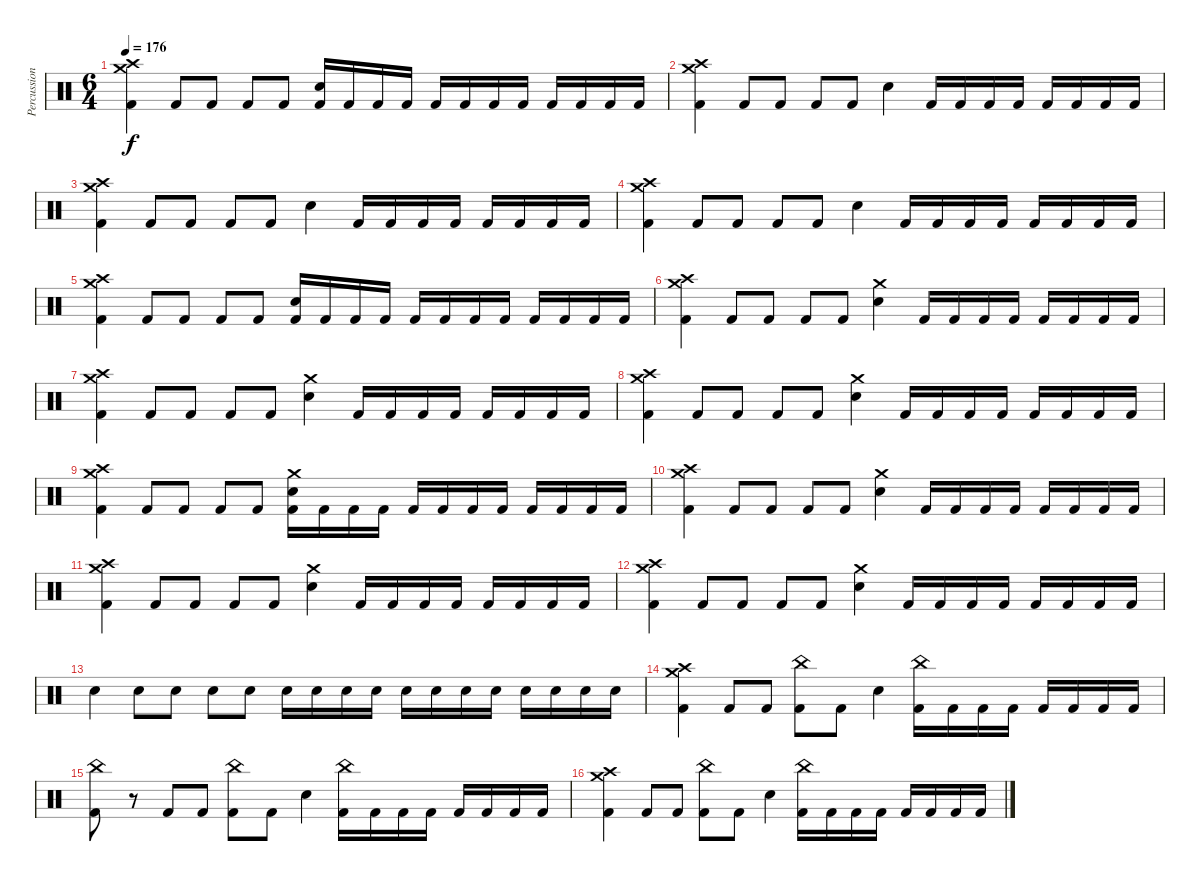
\track ("Percussion" "Percussion") {instrument percussion}
\staff {score}
\articulation defaults
\ts (6 4)
\tempo 176
\clef neutral
\ks c
("Crash high (hit)" "Crash medium (hit)" "Kick (hit) 2").4{dy f} "Kick (hit) 2".8 "Kick (hit) 2".8 "Kick (hit) 2".8 "Kick (hit) 2".8 ("Snare (hit) 2" "Kick (hit) 2").16 "Kick (hit) 2".16 "Kick (hit) 2".16 "Kick (hit) 2".16 "Kick (hit) 2".16 "Kick (hit) 2".16 "Kick (hit) 2".16 "Kick (hit) 2".16 "Kick (hit) 2".16 "Kick (hit) 2".16 "Kick (hit) 2".16 "Kick (hit) 2".16 |
("Crash high (hit)" "Crash medium (hit)" "Kick (hit) 2").4 "Kick (hit) 2".8 "Kick (hit) 2".8 "Kick (hit) 2".8 "Kick (hit) 2".8 "Snare (hit) 2".4 "Kick (hit) 2".16 "Kick (hit) 2".16 "Kick (hit) 2".16 "Kick (hit) 2".16 "Kick (hit) 2".16 "Kick (hit) 2".16 "Kick (hit) 2".16 "Kick (hit) 2".16 |
("Crash high (hit)" "Crash medium (hit)" "Kick (hit) 2").4 "Kick (hit) 2".8 "Kick (hit) 2".8 "Kick (hit) 2".8 "Kick (hit) 2".8 "Snare (hit) 2".4 "Kick (hit) 2".16 "Kick (hit) 2".16 "Kick (hit) 2".16 "Kick (hit) 2".16 "Kick (hit) 2".16 "Kick (hit) 2".16 "Kick (hit) 2".16 "Kick (hit) 2".16 |
("Crash high (hit)" "Crash medium (hit)" "Kick (hit) 2").4 "Kick (hit) 2".8 "Kick (hit) 2".8 "Kick (hit) 2".8 "Kick (hit) 2".8 "Snare (hit) 2".4 "Kick (hit) 2".16 "Kick (hit) 2".16 "Kick (hit) 2".16 "Kick (hit) 2".16 "Kick (hit) 2".16 "Kick (hit) 2".16 "Kick (hit) 2".16 "Kick (hit) 2".16 |
("Crash high (hit)" "Crash medium (hit)" "Kick (hit) 2").4 "Kick (hit) 2".8 "Kick (hit) 2".8 "Kick (hit) 2".8 "Kick (hit) 2".8 ("Snare (hit) 2" "Kick (hit) 2").16 "Kick (hit) 2".16 "Kick (hit) 2".16 "Kick (hit) 2".16 "Kick (hit) 2".16 "Kick (hit) 2".16 "Kick (hit) 2".16 "Kick (hit) 2".16 "Kick (hit) 2".16 "Kick (hit) 2".16 "Kick (hit) 2".16 "Kick (hit) 2".16 |
("Crash high (hit)" "Crash medium (hit)" "Kick (hit) 2").4 "Kick (hit) 2".8 "Kick (hit) 2".8 "Kick (hit) 2".8 "Kick (hit) 2".8 ("Crash medium (hit)" "Snare (hit) 2").4 "Kick (hit) 2".16 "Kick (hit) 2".16 "Kick (hit) 2".16 "Kick (hit) 2".16 "Kick (hit) 2".16 "Kick (hit) 2".16 "Kick (hit) 2".16 "Kick (hit) 2".16 |
("Crash high (hit)" "Crash medium (hit)" "Kick (hit) 2").4 "Kick (hit) 2".8 "Kick (hit) 2".8 "Kick (hit) 2".8 "Kick (hit) 2".8 ("Crash medium (hit)" "Snare (hit) 2").4 "Kick (hit) 2".16 "Kick (hit) 2".16 "Kick (hit) 2".16 "Kick (hit) 2".16 "Kick (hit) 2".16 "Kick (hit) 2".16 "Kick (hit) 2".16 "Kick (hit) 2".16 |
("Crash high (hit)" "Crash medium (hit)" "Kick (hit) 2").4 "Kick (hit) 2".8 "Kick (hit) 2".8 "Kick (hit) 2".8 "Kick (hit) 2".8 ("Crash medium (hit)" "Snare (hit) 2").4 "Kick (hit) 2".16 "Kick (hit) 2".16 "Kick (hit) 2".16 "Kick (hit) 2".16 "Kick (hit) 2".16 "Kick (hit) 2".16 "Kick (hit) 2".16 "Kick (hit) 2".16 |
("Crash high (hit)" "Crash medium (hit)" "Kick (hit) 2").4 "Kick (hit) 2".8 "Kick (hit) 2".8 "Kick (hit) 2".8 "Kick (hit) 2".8 ("Crash medium (hit)" "Snare (hit) 2" "Kick (hit) 2").16 "Kick (hit) 2".16 "Kick (hit) 2".16 "Kick (hit) 2".16 "Kick (hit) 2".16 "Kick (hit) 2".16 "Kick (hit) 2".16 "Kick (hit) 2".16 "Kick (hit) 2".16 "Kick (hit) 2".16 "Kick (hit) 2".16 "Kick (hit) 2".16 |
("Crash high (hit)" "Crash medium (hit)" "Kick (hit) 2").4 "Kick (hit) 2".8 "Kick (hit) 2".8 "Kick (hit) 2".8 "Kick (hit) 2".8 ("Crash medium (hit)" "Snare (hit) 2").4 "Kick (hit) 2".16 "Kick (hit) 2".16 "Kick (hit) 2".16 "Kick (hit) 2".16 "Kick (hit) 2".16 "Kick (hit) 2".16 "Kick (hit) 2".16 "Kick (hit) 2".16 |
("Crash high (hit)" "Crash medium (hit)" "Kick (hit) 2").4 "Kick (hit) 2".8 "Kick (hit) 2".8 "Kick (hit) 2".8 "Kick (hit) 2".8 ("Crash medium (hit)" "Snare (hit) 2").4 "Kick (hit) 2".16 "Kick (hit) 2".16 "Kick (hit) 2".16 "Kick (hit) 2".16 "Kick (hit) 2".16 "Kick (hit) 2".16 "Kick (hit) 2".16 "Kick (hit) 2".16 |
("Crash high (hit)" "Crash medium (hit)" "Kick (hit) 2").4 "Kick (hit) 2".8 "Kick (hit) 2".8 "Kick (hit) 2".8 "Kick (hit) 2".8 ("Crash medium (hit)" "Snare (hit) 2").4 "Kick (hit) 2".16 "Kick (hit) 2".16 "Kick (hit) 2".16 "Kick (hit) 2".16 "Kick (hit) 2".16 "Kick (hit) 2".16 "Kick (hit) 2".16 "Kick (hit) 2".16 |
"Snare (hit) 2".4 "Snare (hit) 2".8 "Snare (hit) 2".8 "Snare (hit) 2".8 "Snare (hit) 2".8 "Snare (hit) 2".16 "Snare (hit) 2".16 "Snare (hit) 2".16 "Snare (hit) 2".16 "Snare (hit) 2".16 "Snare (hit) 2".16 "Snare (hit) 2".16 "Snare (hit) 2".16 "Snare (hit) 2".16 "Snare (hit) 2".16 "Snare (hit) 2".16 "Snare (hit) 2".16 |
("Crash high (hit)" "Crash medium (hit)" "Kick (hit) 2").4 "Kick (hit) 2".8 "Kick (hit) 2".8 ("China (hit)" "Kick (hit) 2").8 "Kick (hit) 2".8 "Snare (hit) 2".4 ("China (hit)" "Kick (hit) 2").16 "Kick (hit) 2".16 "Kick (hit) 2".16 "Kick (hit) 2".16 "Kick (hit) 2".16 "Kick (hit) 2".16 "Kick (hit) 2".16 "Kick (hit) 2".16 |
("China (hit)" "Kick (hit) 2").8 r.8 "Kick (hit) 2".8 "Kick (hit) 2".8 ("China (hit)" "Kick (hit) 2").8 "Kick (hit) 2".8 "Snare (hit) 2".4 ("China (hit)" "Kick (hit) 2").16 "Kick (hit) 2".16 "Kick (hit) 2".16 "Kick (hit) 2".16 "Kick (hit) 2".16 "Kick (hit) 2".16 "Kick (hit) 2".16 "Kick (hit) 2".16 |
("Crash high (hit)" "Crash medium (hit)" "Kick (hit) 2").4 "Kick (hit) 2".8 "Kick (hit) 2".8 ("China (hit)" "Kick (hit) 2").8 "Kick (hit) 2".8 "Snare (hit) 2".4 ("China (hit)" "Kick (hit) 2").16 "Kick (hit) 2".16 "Kick (hit) 2".16 "Kick (hit) 2".16 "Kick (hit) 2".16 "Kick (hit) 2".16 "Kick (hit) 2".16 "Kick (hit) 2".16
